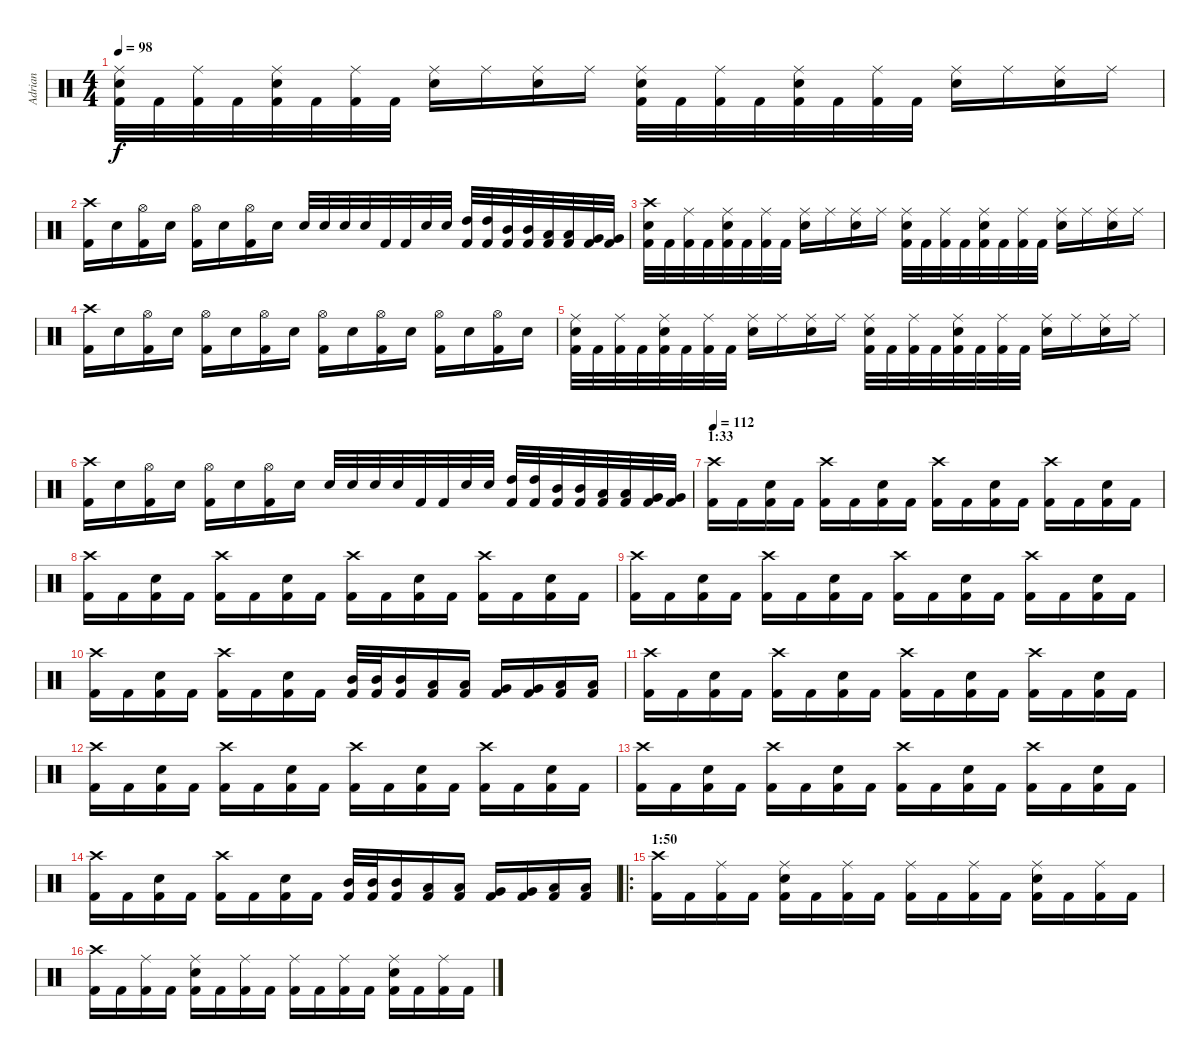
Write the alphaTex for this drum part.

\track ("Adrian" "Adrian") {instrument percussion}
\staff {score}
\articulation defaults
\ts (4 4)
\tempo 98
\clef neutral
\ks c
("Kick (hit) 2" "Snare (hit) 2" "Ride (middle)").32{dy f} "Kick (hit) 2".32 ("Kick (hit) 2" "Ride (middle)").32 "Kick (hit) 2".32 ("Kick (hit) 2" "Snare (hit) 2" "Ride (middle)").32 "Kick (hit) 2".32 ("Kick (hit) 2" "Ride (middle)").32 "Kick (hit) 2".32 ("Snare (hit) 2" "Ride (middle)").16 "Ride (middle)".16 ("Snare (hit) 2" "Ride (middle)").16 "Ride (middle)".16 ("Kick (hit) 2" "Snare (hit) 2" "Ride (middle)").32 "Kick (hit) 2".32 ("Kick (hit) 2" "Ride (middle)").32 "Kick (hit) 2".32 ("Kick (hit) 2" "Snare (hit) 2" "Ride (middle)").32 "Kick (hit) 2".32 ("Kick (hit) 2" "Ride (middle)").32 "Kick (hit) 2".32 ("Snare (hit) 2" "Ride (middle)").16 "Ride (middle)".16 ("Snare (hit) 2" "Ride (middle)").16 "Ride (middle)".16 |
("Kick (hit) 2" "Crash high (hit)").16 "Snare (hit) 2".16 ("Kick (hit) 2" "Hi-Hat (open)").16 "Snare (hit) 2".16 ("Kick (hit) 2" "Hi-Hat (open)").16 "Snare (hit) 2".16 ("Kick (hit) 2" "Hi-Hat (open)").16 "Snare (hit) 2".16 "Snare (hit) 2".32 "Snare (hit) 2".32 "Snare (hit) 2".32 "Snare (hit) 2".32 "Kick (hit) 2".32 "Kick (hit) 2".32 "Snare (hit) 2".32 "Snare (hit) 2".32 ("Kick (hit) 2" "High Tom (hit)").32 ("Kick (hit) 2" "High Tom (hit)").32 ("Kick (hit) 2" "Mid Tom (hit)").32 ("Kick (hit) 2" "Mid Tom (hit)").32 ("Kick (hit) 2" "Low Tom (hit)").32 ("Kick (hit) 2" "Low Tom (hit)").32 ("Kick (hit) 2" "Very Low Tom (hit)").32 ("Kick (hit) 2" "Very Low Tom (hit)").32 |
("Kick (hit) 2" "Snare (hit) 2" "Crash high (hit)").32 "Kick (hit) 2".32 ("Kick (hit) 2" "Ride (middle)").32 "Kick (hit) 2".32 ("Kick (hit) 2" "Snare (hit) 2" "Ride (middle)").32 "Kick (hit) 2".32 ("Kick (hit) 2" "Ride (middle)").32 "Kick (hit) 2".32 ("Snare (hit) 2" "Ride (middle)").16 "Ride (middle)".16 ("Snare (hit) 2" "Ride (middle)").16 "Ride (middle)".16 ("Kick (hit) 2" "Snare (hit) 2" "Ride (middle)").32 "Kick (hit) 2".32 ("Kick (hit) 2" "Ride (middle)").32 "Kick (hit) 2".32 ("Kick (hit) 2" "Snare (hit) 2" "Ride (middle)").32 "Kick (hit) 2".32 ("Kick (hit) 2" "Ride (middle)").32 "Kick (hit) 2".32 ("Snare (hit) 2" "Ride (middle)").16 "Ride (middle)".16 ("Snare (hit) 2" "Ride (middle)").16 "Ride (middle)".16 |
("Kick (hit) 2" "Crash high (hit)").16 "Snare (hit) 2".16 ("Kick (hit) 2" "Hi-Hat (open)").16 "Snare (hit) 2".16 ("Kick (hit) 2" "Hi-Hat (open)").16 "Snare (hit) 2".16 ("Kick (hit) 2" "Hi-Hat (open)").16 "Snare (hit) 2".16 ("Kick (hit) 2" "Hi-Hat (open)").16 "Snare (hit) 2".16 ("Kick (hit) 2" "Hi-Hat (open)").16 "Snare (hit) 2".16 ("Kick (hit) 2" "Hi-Hat (open)").16 "Snare (hit) 2".16 ("Kick (hit) 2" "Hi-Hat (open)").16 "Snare (hit) 2".16 |
("Kick (hit) 2" "Snare (hit) 2" "Ride (middle)").32 "Kick (hit) 2".32 ("Kick (hit) 2" "Ride (middle)").32 "Kick (hit) 2".32 ("Kick (hit) 2" "Snare (hit) 2" "Ride (middle)").32 "Kick (hit) 2".32 ("Kick (hit) 2" "Ride (middle)").32 "Kick (hit) 2".32 ("Snare (hit) 2" "Ride (middle)").16 "Ride (middle)".16 ("Snare (hit) 2" "Ride (middle)").16 "Ride (middle)".16 ("Kick (hit) 2" "Snare (hit) 2" "Ride (middle)").32 "Kick (hit) 2".32 ("Kick (hit) 2" "Ride (middle)").32 "Kick (hit) 2".32 ("Kick (hit) 2" "Snare (hit) 2" "Ride (middle)").32 "Kick (hit) 2".32 ("Kick (hit) 2" "Ride (middle)").32 "Kick (hit) 2".32 ("Snare (hit) 2" "Ride (middle)").16 "Ride (middle)".16 ("Snare (hit) 2" "Ride (middle)").16 "Ride (middle)".16 |
("Kick (hit) 2" "Crash high (hit)").16 "Snare (hit) 2".16 ("Kick (hit) 2" "Hi-Hat (open)").16 "Snare (hit) 2".16 ("Kick (hit) 2" "Hi-Hat (open)").16 "Snare (hit) 2".16 ("Kick (hit) 2" "Hi-Hat (open)").16 "Snare (hit) 2".16 "Snare (hit) 2".32 "Snare (hit) 2".32 "Snare (hit) 2".32 "Snare (hit) 2".32 "Kick (hit) 2".32 "Kick (hit) 2".32 "Snare (hit) 2".32 "Snare (hit) 2".32 ("Kick (hit) 2" "High Tom (hit)").32 ("Kick (hit) 2" "High Tom (hit)").32 ("Kick (hit) 2" "Mid Tom (hit)").32 ("Kick (hit) 2" "Mid Tom (hit)").32 ("Kick (hit) 2" "Low Tom (hit)").32 ("Kick (hit) 2" "Low Tom (hit)").32 ("Kick (hit) 2" "Very Low Tom (hit)").32 ("Kick (hit) 2" "Very Low Tom (hit)").32 |
\section ("" "1:33")
\tempo 112
("Kick (hit) 2" "Crash high (hit)").16 "Kick (hit) 2".16 ("Kick (hit) 2" "Snare (hit) 2").16 "Kick (hit) 2".16 ("Kick (hit) 2" "Crash high (hit)").16 "Kick (hit) 2".16 ("Kick (hit) 2" "Snare (hit) 2").16 "Kick (hit) 2".16 ("Kick (hit) 2" "Crash high (hit)").16 "Kick (hit) 2".16 ("Kick (hit) 2" "Snare (hit) 2").16 "Kick (hit) 2".16 ("Kick (hit) 2" "Crash high (hit)").16 "Kick (hit) 2".16 ("Kick (hit) 2" "Snare (hit) 2").16 "Kick (hit) 2".16 |
("Kick (hit) 2" "Crash high (hit)").16 "Kick (hit) 2".16 ("Kick (hit) 2" "Snare (hit) 2").16 "Kick (hit) 2".16 ("Kick (hit) 2" "Crash high (hit)").16 "Kick (hit) 2".16 ("Kick (hit) 2" "Snare (hit) 2").16 "Kick (hit) 2".16 ("Kick (hit) 2" "Crash high (hit)").16 "Kick (hit) 2".16 ("Kick (hit) 2" "Snare (hit) 2").16 "Kick (hit) 2".16 ("Kick (hit) 2" "Crash high (hit)").16 "Kick (hit) 2".16 ("Kick (hit) 2" "Snare (hit) 2").16 "Kick (hit) 2".16 |
("Kick (hit) 2" "Crash high (hit)").16 "Kick (hit) 2".16 ("Kick (hit) 2" "Snare (hit) 2").16 "Kick (hit) 2".16 ("Kick (hit) 2" "Crash high (hit)").16 "Kick (hit) 2".16 ("Kick (hit) 2" "Snare (hit) 2").16 "Kick (hit) 2".16 ("Kick (hit) 2" "Crash high (hit)").16 "Kick (hit) 2".16 ("Kick (hit) 2" "Snare (hit) 2").16 "Kick (hit) 2".16 ("Kick (hit) 2" "Crash high (hit)").16 "Kick (hit) 2".16 ("Kick (hit) 2" "Snare (hit) 2").16 "Kick (hit) 2".16 |
("Kick (hit) 2" "Crash high (hit)").16 "Kick (hit) 2".16 ("Kick (hit) 2" "Snare (hit) 2").16 "Kick (hit) 2".16 ("Kick (hit) 2" "Crash high (hit)").16 "Kick (hit) 2".16 ("Kick (hit) 2" "Snare (hit) 2").16 "Kick (hit) 2".16 ("Kick (hit) 2" "Mid Tom (hit)").32 ("Kick (hit) 2" "Mid Tom (hit)").32 ("Kick (hit) 2" "Mid Tom (hit)").16 ("Kick (hit) 2" "Low Tom (hit)").16 ("Kick (hit) 2" "Low Tom (hit)").16 ("Kick (hit) 2" "Very Low Tom (hit)").16 ("Kick (hit) 2" "Very Low Tom (hit)").16 ("Kick (hit) 2" "Low Floor Tom (hit)").16 ("Kick (hit) 2" "Low Floor Tom (hit)").16 |
("Kick (hit) 2" "Crash high (hit)").16 "Kick (hit) 2".16 ("Kick (hit) 2" "Snare (hit) 2").16 "Kick (hit) 2".16 ("Kick (hit) 2" "Crash high (hit)").16 "Kick (hit) 2".16 ("Kick (hit) 2" "Snare (hit) 2").16 "Kick (hit) 2".16 ("Kick (hit) 2" "Crash high (hit)").16 "Kick (hit) 2".16 ("Kick (hit) 2" "Snare (hit) 2").16 "Kick (hit) 2".16 ("Kick (hit) 2" "Crash high (hit)").16 "Kick (hit) 2".16 ("Kick (hit) 2" "Snare (hit) 2").16 "Kick (hit) 2".16 |
("Kick (hit) 2" "Crash high (hit)").16 "Kick (hit) 2".16 ("Kick (hit) 2" "Snare (hit) 2").16 "Kick (hit) 2".16 ("Kick (hit) 2" "Crash high (hit)").16 "Kick (hit) 2".16 ("Kick (hit) 2" "Snare (hit) 2").16 "Kick (hit) 2".16 ("Kick (hit) 2" "Crash high (hit)").16 "Kick (hit) 2".16 ("Kick (hit) 2" "Snare (hit) 2").16 "Kick (hit) 2".16 ("Kick (hit) 2" "Crash high (hit)").16 "Kick (hit) 2".16 ("Kick (hit) 2" "Snare (hit) 2").16 "Kick (hit) 2".16 |
("Kick (hit) 2" "Crash high (hit)").16 "Kick (hit) 2".16 ("Kick (hit) 2" "Snare (hit) 2").16 "Kick (hit) 2".16 ("Kick (hit) 2" "Crash high (hit)").16 "Kick (hit) 2".16 ("Kick (hit) 2" "Snare (hit) 2").16 "Kick (hit) 2".16 ("Kick (hit) 2" "Crash high (hit)").16 "Kick (hit) 2".16 ("Kick (hit) 2" "Snare (hit) 2").16 "Kick (hit) 2".16 ("Kick (hit) 2" "Crash high (hit)").16 "Kick (hit) 2".16 ("Kick (hit) 2" "Snare (hit) 2").16 "Kick (hit) 2".16 |
("Kick (hit) 2" "Crash high (hit)").16 "Kick (hit) 2".16 ("Kick (hit) 2" "Snare (hit) 2").16 "Kick (hit) 2".16 ("Kick (hit) 2" "Crash high (hit)").16 "Kick (hit) 2".16 ("Kick (hit) 2" "Snare (hit) 2").16 "Kick (hit) 2".16 ("Kick (hit) 2" "Mid Tom (hit)").32 ("Kick (hit) 2" "Mid Tom (hit)").32 ("Kick (hit) 2" "Mid Tom (hit)").16 ("Kick (hit) 2" "Low Tom (hit)").16 ("Kick (hit) 2" "Low Tom (hit)").16 ("Kick (hit) 2" "Very Low Tom (hit)").16 ("Kick (hit) 2" "Very Low Tom (hit)").16 ("Kick (hit) 2" "Low Floor Tom (hit)").16 ("Kick (hit) 2" "Low Floor Tom (hit)").16 |
\ro
\section ("" "1:50")
("Kick (hit) 2" "Crash high (hit)").16 "Kick (hit) 2".16 ("Kick (hit) 2" "Ride (middle)").16 "Kick (hit) 2".16 ("Kick (hit) 2" "Snare (hit) 2" "Ride (middle)").16 "Kick (hit) 2".16 ("Kick (hit) 2" "Ride (middle)").16 "Kick (hit) 2".16 ("Kick (hit) 2" "Ride (middle)").16 "Kick (hit) 2".16 ("Kick (hit) 2" "Ride (middle)").16 "Kick (hit) 2".16 ("Kick (hit) 2" "Snare (hit) 2" "Ride (middle)").16 "Kick (hit) 2".16 ("Kick (hit) 2" "Ride (middle)").16 "Kick (hit) 2".16 |
("Kick (hit) 2" "Crash high (hit)").16 "Kick (hit) 2".16 ("Kick (hit) 2" "Ride (middle)").16 "Kick (hit) 2".16 ("Kick (hit) 2" "Snare (hit) 2" "Ride (middle)").16 "Kick (hit) 2".16 ("Kick (hit) 2" "Ride (middle)").16 "Kick (hit) 2".16 ("Kick (hit) 2" "Ride (middle)").16 "Kick (hit) 2".16 ("Kick (hit) 2" "Ride (middle)").16 "Kick (hit) 2".16 ("Kick (hit) 2" "Snare (hit) 2" "Ride (middle)").16 "Kick (hit) 2".16 ("Kick (hit) 2" "Ride (middle)").16 "Kick (hit) 2".16
